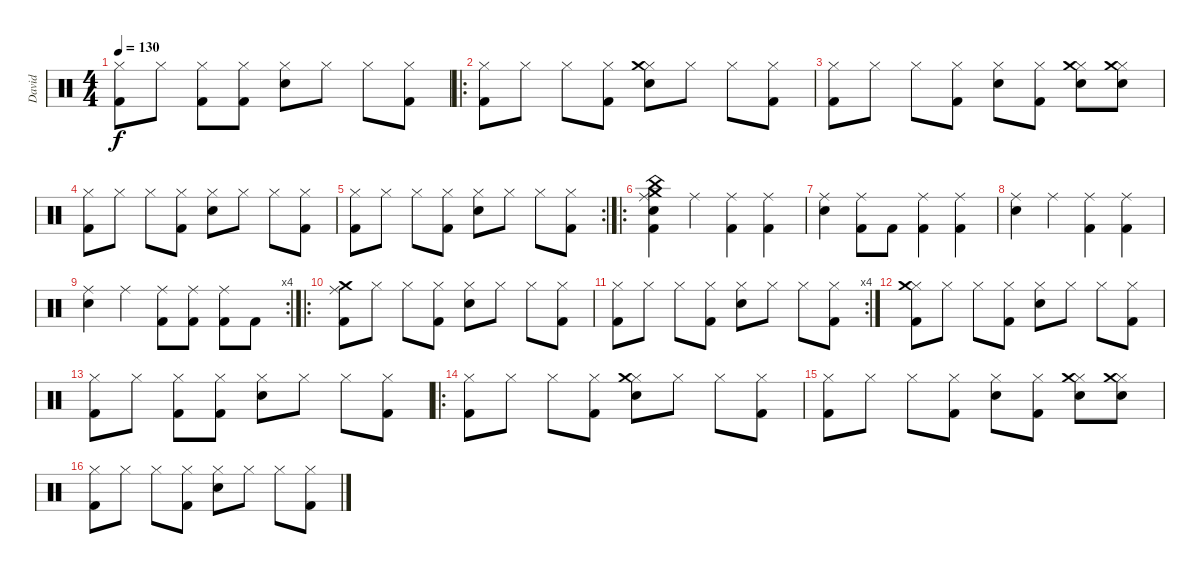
\track ("David" "David") {instrument percussion}
\staff {score}
\articulation defaults
\ts (4 4)
\tempo 130
\clef neutral
\ks c
("Hi-Hat (closed)" "Kick (hit) 2").8{dy f} "Hi-Hat (closed)".8 ("Hi-Hat (closed)" "Kick (hit) 2").8 ("Hi-Hat (closed)" "Kick (hit) 2").8 ("Hi-Hat (closed)" "Electric Snare (hit)").8 "Hi-Hat (closed)".8 "Hi-Hat (closed)".8 ("Hi-Hat (closed)" "Kick (hit) 2").8 |
\ro
("Hi-Hat (closed)" "Kick (hit) 2").8 "Hi-Hat (closed)".8 "Hi-Hat (closed)".8 ("Hi-Hat (closed)" "Kick (hit) 2").8 ("Hi-Hat (closed)" "Crash medium (hit)" "Electric Snare (hit)").8 "Hi-Hat (closed)".8 "Hi-Hat (closed)".8 ("Hi-Hat (closed)" "Kick (hit) 2").8 |
("Hi-Hat (closed)" "Kick (hit) 2").8 "Hi-Hat (closed)".8 "Hi-Hat (closed)".8 ("Hi-Hat (closed)" "Kick (hit) 2").8 ("Hi-Hat (closed)" "Electric Snare (hit)").8 ("Hi-Hat (closed)" "Kick (hit) 2").8 ("Hi-Hat (closed)" "Crash medium (hit)" "Electric Snare (hit)").8 ("Hi-Hat (closed)" "Crash medium (hit)" "Electric Snare (hit)").8 |
("Hi-Hat (closed)" "Kick (hit) 2").8 "Hi-Hat (closed)".8 "Hi-Hat (closed)".8 ("Hi-Hat (closed)" "Kick (hit) 2").8 ("Hi-Hat (closed)" "Electric Snare (hit)").8 "Hi-Hat (closed)".8 "Hi-Hat (closed)".8 ("Hi-Hat (closed)" "Kick (hit) 2").8 |
\rc 2
("Hi-Hat (closed)" "Kick (hit) 2").8 "Hi-Hat (closed)".8 "Hi-Hat (closed)".8 ("Hi-Hat (closed)" "Kick (hit) 2").8 ("Hi-Hat (closed)" "Electric Snare (hit)").8 "Hi-Hat (closed)".8 "Hi-Hat (closed)".8 ("Hi-Hat (closed)" "Kick (hit) 2").8 |
\ro
("Ride (middle)" "Crash medium (hit)" "China (hit)" "Electric Snare (hit)" "Kick (hit) 2").4 "Ride (middle)".4 ("Ride (middle)" "Kick (hit) 2").4 ("Ride (middle)" "Kick (hit) 2").4 |
("Ride (middle)" "Electric Snare (hit)").4 ("Ride (middle)" "Kick (hit) 2").8 "Kick (hit) 2".8 ("Ride (middle)" "Kick (hit) 2").4 ("Ride (middle)" "Kick (hit) 2").4 |
("Ride (middle)" "Electric Snare (hit)").4 "Ride (middle)".4 ("Ride (middle)" "Kick (hit) 2").4 ("Ride (middle)" "Kick (hit) 2").4 |
\rc 4
("Ride (middle)" "Electric Snare (hit)").4 "Ride (middle)".4 ("Ride (middle)" "Kick (hit) 2").8 ("Ride (middle)" "Kick (hit) 2").8 ("Ride (middle)" "Kick (hit) 2").8 "Kick (hit) 2".8 |
\ro
("Crash medium (hit)" "Ride (middle)" "Kick (hit) 2").8 "Hi-Hat (closed)".8 "Hi-Hat (closed)".8 ("Hi-Hat (closed)" "Kick (hit) 2").8 ("Hi-Hat (closed)" "Electric Snare (hit)").8 "Hi-Hat (closed)".8 "Hi-Hat (closed)".8 ("Hi-Hat (closed)" "Kick (hit) 2").8 |
\rc 4
("Hi-Hat (closed)" "Kick (hit) 2").8 "Hi-Hat (closed)".8 "Hi-Hat (closed)".8 ("Hi-Hat (closed)" "Kick (hit) 2").8 ("Hi-Hat (closed)" "Electric Snare (hit)").8 "Hi-Hat (closed)".8 "Hi-Hat (closed)".8 ("Hi-Hat (closed)" "Kick (hit) 2").8 |
("Hi-Hat (closed)" "Crash medium (hit)" "Kick (hit) 2").8 "Hi-Hat (closed)".8 "Hi-Hat (closed)".8 ("Hi-Hat (closed)" "Kick (hit) 2").8 ("Hi-Hat (closed)" "Electric Snare (hit)").8 "Hi-Hat (closed)".8 "Hi-Hat (closed)".8 ("Hi-Hat (closed)" "Kick (hit) 2").8 |
("Hi-Hat (closed)" "Kick (hit) 2").8 "Hi-Hat (closed)".8 ("Hi-Hat (closed)" "Kick (hit) 2").8 ("Hi-Hat (closed)" "Kick (hit) 2").8 ("Hi-Hat (closed)" "Electric Snare (hit)").8 "Hi-Hat (closed)".8 "Hi-Hat (closed)".8 ("Hi-Hat (closed)" "Kick (hit) 2").8 |
\ro
("Hi-Hat (closed)" "Kick (hit) 2").8 "Hi-Hat (closed)".8 "Hi-Hat (closed)".8 ("Hi-Hat (closed)" "Kick (hit) 2").8 ("Hi-Hat (closed)" "Crash medium (hit)" "Electric Snare (hit)").8 "Hi-Hat (closed)".8 "Hi-Hat (closed)".8 ("Hi-Hat (closed)" "Kick (hit) 2").8 |
("Hi-Hat (closed)" "Kick (hit) 2").8 "Hi-Hat (closed)".8 "Hi-Hat (closed)".8 ("Hi-Hat (closed)" "Kick (hit) 2").8 ("Hi-Hat (closed)" "Electric Snare (hit)").8 ("Hi-Hat (closed)" "Kick (hit) 2").8 ("Hi-Hat (closed)" "Crash medium (hit)" "Electric Snare (hit)").8 ("Hi-Hat (closed)" "Crash medium (hit)" "Electric Snare (hit)").8 |
("Hi-Hat (closed)" "Kick (hit) 2").8 "Hi-Hat (closed)".8 "Hi-Hat (closed)".8 ("Hi-Hat (closed)" "Kick (hit) 2").8 ("Hi-Hat (closed)" "Electric Snare (hit)").8 "Hi-Hat (closed)".8 "Hi-Hat (closed)".8 ("Hi-Hat (closed)" "Kick (hit) 2").8
